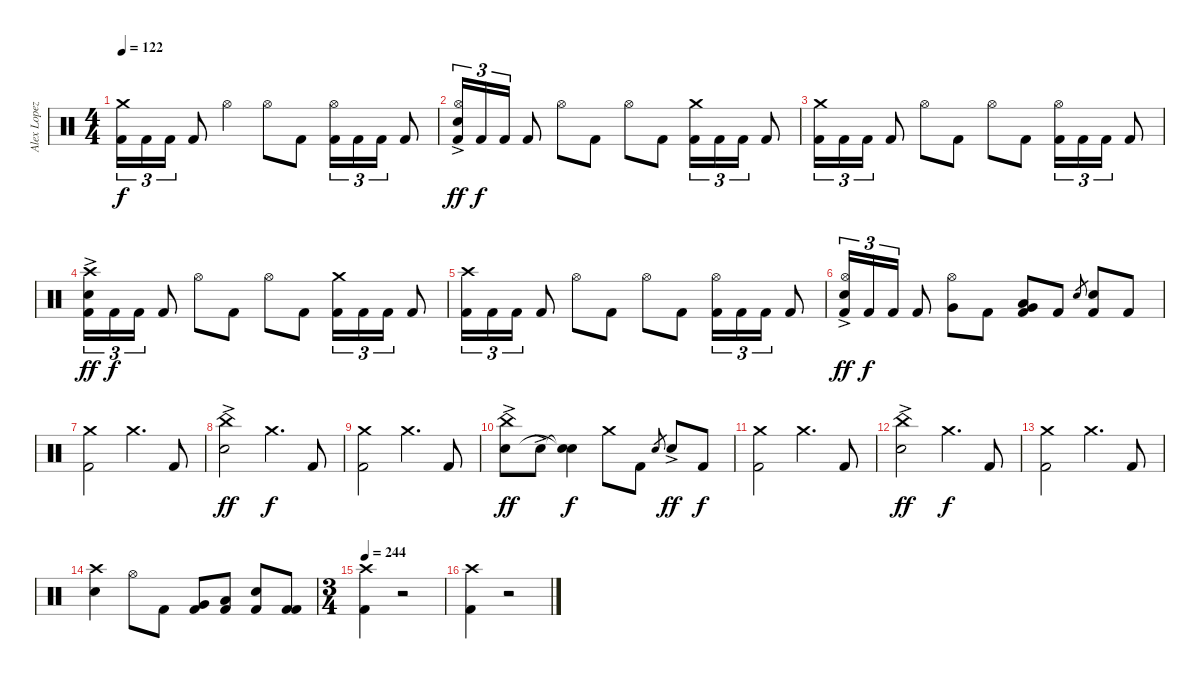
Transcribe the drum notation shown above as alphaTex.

\track ("Alex Lopez" "Alex Lopez") {instrument percussion}
\staff {score}
\articulation defaults
\ts (4 4)
\tempo 122
\clef neutral
\ks c
("Crash medium (hit)" "Kick (hit) 2").16{tu (3 2) dy f} "Kick (hit) 2".16{tu (3 2)} "Kick (hit) 2".16{tu (3 2)} "Kick (hit) 2".8 "Hi-Hat (open)".4 "Hi-Hat (open)".8 "Kick (hit) 2".8 ("Hi-Hat (open)" "Kick (hit) 2").16{tu (3 2)} "Kick (hit) 2".16{tu (3 2)} "Kick (hit) 2".16{tu (3 2)} "Kick (hit) 2".8 |
("Hi-Hat (open)" "Snare (hit) 2"{ac} "Kick (hit) 2").16{tu (3 2) dy ff} "Kick (hit) 2".16{tu (3 2) dy f} "Kick (hit) 2".16{tu (3 2)} "Kick (hit) 2".8 "Hi-Hat (open)".8 "Kick (hit) 2".8 "Hi-Hat (open)".8 "Kick (hit) 2".8 ("Crash medium (hit)" "Kick (hit) 2").16{tu (3 2)} "Kick (hit) 2".16{tu (3 2)} "Kick (hit) 2".16{tu (3 2)} "Kick (hit) 2".8 |
("Crash medium (hit)" "Kick (hit) 2").16{tu (3 2)} "Kick (hit) 2".16{tu (3 2)} "Kick (hit) 2".16{tu (3 2)} "Kick (hit) 2".8 "Hi-Hat (open)".8 "Kick (hit) 2".8 "Hi-Hat (open)".8 "Kick (hit) 2".8 ("Hi-Hat (open)" "Kick (hit) 2").16{tu (3 2)} "Kick (hit) 2".16{tu (3 2)} "Kick (hit) 2".16{tu (3 2)} "Kick (hit) 2".8 |
("Crash high (hit)" "Snare (hit) 2"{ac} "Kick (hit) 2").16{tu (3 2) dy ff} "Kick (hit) 2".16{tu (3 2) dy f} "Kick (hit) 2".16{tu (3 2)} "Kick (hit) 2".8 "Hi-Hat (open)".8 "Kick (hit) 2".8 "Hi-Hat (open)".8 "Kick (hit) 2".8 ("Crash medium (hit)" "Kick (hit) 2").16{tu (3 2)} "Kick (hit) 2".16{tu (3 2)} "Kick (hit) 2".16{tu (3 2)} "Kick (hit) 2".8 |
("Crash high (hit)" "Kick (hit) 2").16{tu (3 2)} "Kick (hit) 2".16{tu (3 2)} "Kick (hit) 2".16{tu (3 2)} "Kick (hit) 2".8 "Hi-Hat (open)".8 "Kick (hit) 2".8 "Hi-Hat (open)".8 "Kick (hit) 2".8 ("Hi-Hat (open)" "Kick (hit) 2").16{tu (3 2)} "Kick (hit) 2".16{tu (3 2)} "Kick (hit) 2".16{tu (3 2)} "Kick (hit) 2".8 |
("Hi-Hat (open)" "Snare (hit) 2"{ac} "Kick (hit) 2").16{tu (3 2) dy ff} "Kick (hit) 2".16{tu (3 2) dy f} "Kick (hit) 2".16{tu (3 2)} "Kick (hit) 2".8 ("Hi-Hat (open)" "Very Low Tom (hit)").8 "Kick (hit) 2".8 ("Low Floor Tom (hit)" "Very Low Tom (hit)" "Kick (hit) 2").8 "Kick (hit) 2".8 "Snare (hit) 2".8{gr} ("Snare (hit) 2" "Kick (hit) 2").8 "Kick (hit) 2".8 |
("Crash medium (hit)" "Kick (hit) 2").2 "Crash medium (hit)".4{d} "Kick (hit) 2".8 |
("China (hit)" "Electric Snare (hit)"{ac}).2{dy ff} "Crash medium (hit)".4{d dy f} "Kick (hit) 2".8 |
("Crash medium (hit)" "Kick (hit) 2").2 "Crash medium (hit)".4{d} "Kick (hit) 2".8 |
("China (hit)" "Electric Snare (hit)"{ac}).8{dy ff} "Electric Snare (hit)"{ac}.8 ("Snare (hit)"{t} "Snare (hit)"{t}).4{dy f} "Crash medium (hit)".8 "Kick (hit) 2".8 "Electric Snare (hit)".8{gr} "Electric Snare (hit)"{ac}.8{dy ff} "Kick (hit) 2".8{dy f} |
("Crash medium (hit)" "Kick (hit) 2").2 "Crash medium (hit)".4{d} "Kick (hit) 2".8 |
("China (hit)" "Electric Snare (hit)"{ac}).2{dy ff} "Crash medium (hit)".4{d dy f} "Kick (hit) 2".8 |
("Crash medium (hit)" "Kick (hit) 2").2 "Crash medium (hit)".4{d} "Kick (hit) 2".8 |
("Crash high (hit)" "Electric Snare (hit)").4 "Hi-Hat (open)".8 "Kick (hit) 2".8 ("Very Low Tom (hit)" "Kick (hit) 2").8 ("Low Floor Tom (hit)" "Kick (hit) 2").8 ("Snare (hit) 2" "Kick (hit) 2").8 ("Kick (hit) 2" "Kick (hit) 2").8 |
\ts (3 4)
\tempo 244
("Crash high (hit)" "Kick (hit) 2").4 r.2{volume 0} |
("Crash high (hit)" "Kick (hit) 2").4{volume 16} r.2{volume 0}
